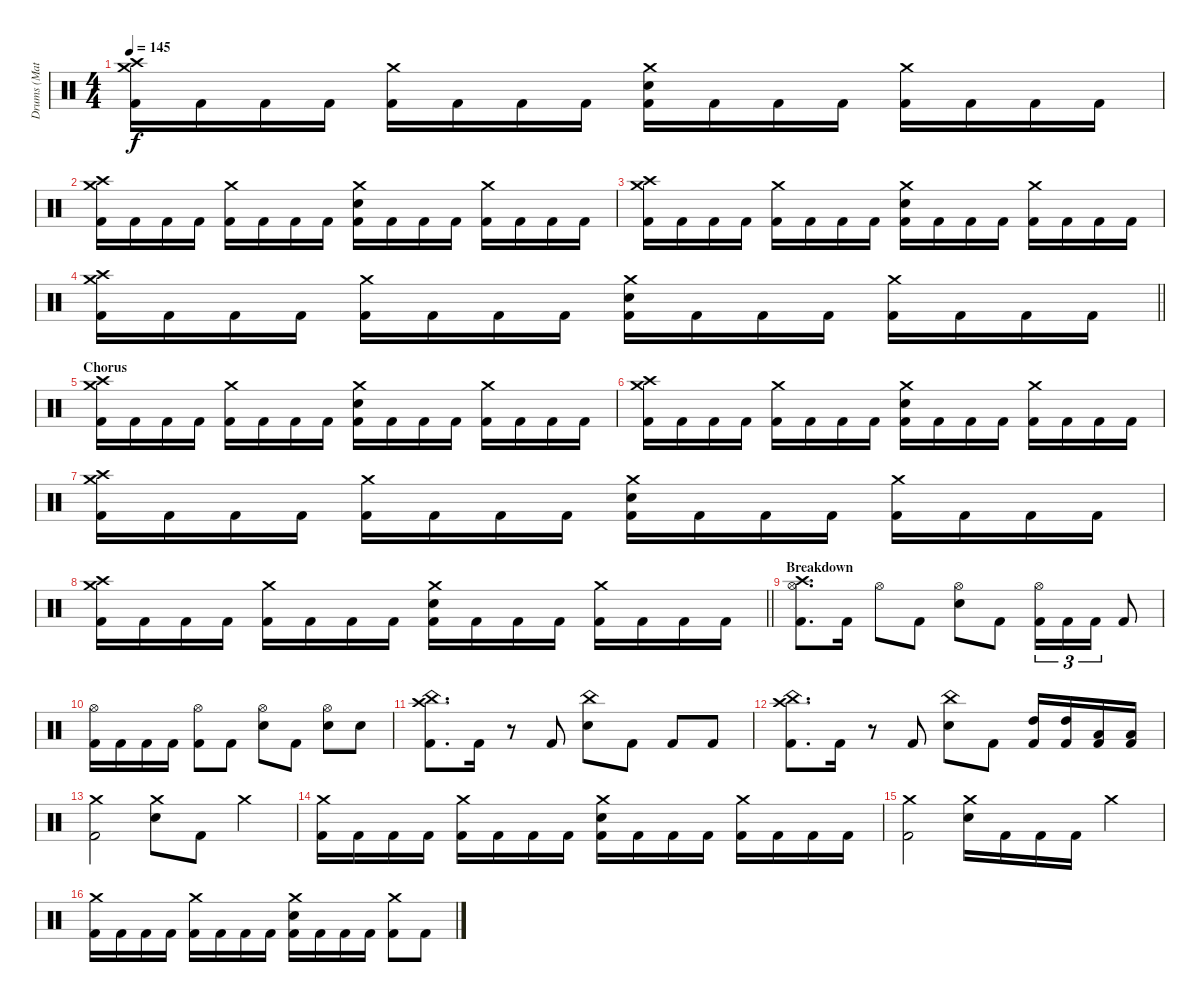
\track ("Drums (Matt Kuykendall)" "Drums (Mat") {instrument percussion}
\staff {score}
\articulation defaults
\ts (4 4)
\tempo 145
\clef neutral
\ks c
("Crash medium (hit)" "Crash high (hit)" "Kick (hit) 2").16{dy f} "Kick (hit) 2".16 "Kick (hit) 2".16 "Kick (hit) 2".16 ("Crash medium (hit)" "Kick (hit) 2").16 "Kick (hit) 2".16 "Kick (hit) 2".16 "Kick (hit) 2".16 ("Crash medium (hit)" "Electric Snare (hit)" "Kick (hit) 2").16 "Kick (hit) 2".16 "Kick (hit) 2".16 "Kick (hit) 2".16 ("Crash medium (hit)" "Kick (hit) 2").16 "Kick (hit) 2".16 "Kick (hit) 2".16 "Kick (hit) 2".16 |
("Crash medium (hit)" "Crash high (hit)" "Kick (hit) 2").16 "Kick (hit) 2".16 "Kick (hit) 2".16 "Kick (hit) 2".16 ("Crash medium (hit)" "Kick (hit) 2").16 "Kick (hit) 2".16 "Kick (hit) 2".16 "Kick (hit) 2".16 ("Crash medium (hit)" "Electric Snare (hit)" "Kick (hit) 2").16 "Kick (hit) 2".16 "Kick (hit) 2".16 "Kick (hit) 2".16 ("Crash medium (hit)" "Kick (hit) 2").16 "Kick (hit) 2".16 "Kick (hit) 2".16 "Kick (hit) 2".16 |
("Crash medium (hit)" "Crash high (hit)" "Kick (hit) 2").16 "Kick (hit) 2".16 "Kick (hit) 2".16 "Kick (hit) 2".16 ("Crash medium (hit)" "Kick (hit) 2").16 "Kick (hit) 2".16 "Kick (hit) 2".16 "Kick (hit) 2".16 ("Crash medium (hit)" "Electric Snare (hit)" "Kick (hit) 2").16 "Kick (hit) 2".16 "Kick (hit) 2".16 "Kick (hit) 2".16 ("Crash medium (hit)" "Kick (hit) 2").16 "Kick (hit) 2".16 "Kick (hit) 2".16 "Kick (hit) 2".16 |
\barLineRight lightlight
("Crash medium (hit)" "Crash high (hit)" "Kick (hit) 2").16 "Kick (hit) 2".16 "Kick (hit) 2".16 "Kick (hit) 2".16 ("Crash medium (hit)" "Kick (hit) 2").16 "Kick (hit) 2".16 "Kick (hit) 2".16 "Kick (hit) 2".16 ("Crash medium (hit)" "Electric Snare (hit)" "Kick (hit) 2").16 "Kick (hit) 2".16 "Kick (hit) 2".16 "Kick (hit) 2".16 ("Crash medium (hit)" "Kick (hit) 2").16 "Kick (hit) 2".16 "Kick (hit) 2".16 "Kick (hit) 2".16 |
\section ("" "Chorus")
("Crash medium (hit)" "Crash high (hit)" "Kick (hit) 2").16 "Kick (hit) 2".16 "Kick (hit) 2".16 "Kick (hit) 2".16 ("Crash medium (hit)" "Kick (hit) 2").16 "Kick (hit) 2".16 "Kick (hit) 2".16 "Kick (hit) 2".16 ("Crash medium (hit)" "Electric Snare (hit)" "Kick (hit) 2").16 "Kick (hit) 2".16 "Kick (hit) 2".16 "Kick (hit) 2".16 ("Crash medium (hit)" "Kick (hit) 2").16 "Kick (hit) 2".16 "Kick (hit) 2".16 "Kick (hit) 2".16 |
("Crash medium (hit)" "Crash high (hit)" "Kick (hit) 2").16 "Kick (hit) 2".16 "Kick (hit) 2".16 "Kick (hit) 2".16 ("Crash medium (hit)" "Kick (hit) 2").16 "Kick (hit) 2".16 "Kick (hit) 2".16 "Kick (hit) 2".16 ("Crash medium (hit)" "Electric Snare (hit)" "Kick (hit) 2").16 "Kick (hit) 2".16 "Kick (hit) 2".16 "Kick (hit) 2".16 ("Crash medium (hit)" "Kick (hit) 2").16 "Kick (hit) 2".16 "Kick (hit) 2".16 "Kick (hit) 2".16 |
("Crash medium (hit)" "Crash high (hit)" "Kick (hit) 2").16 "Kick (hit) 2".16 "Kick (hit) 2".16 "Kick (hit) 2".16 ("Crash medium (hit)" "Kick (hit) 2").16 "Kick (hit) 2".16 "Kick (hit) 2".16 "Kick (hit) 2".16 ("Crash medium (hit)" "Electric Snare (hit)" "Kick (hit) 2").16 "Kick (hit) 2".16 "Kick (hit) 2".16 "Kick (hit) 2".16 ("Crash medium (hit)" "Kick (hit) 2").16 "Kick (hit) 2".16 "Kick (hit) 2".16 "Kick (hit) 2".16 |
\barLineRight lightlight
("Crash medium (hit)" "Crash high (hit)" "Kick (hit) 2").16 "Kick (hit) 2".16 "Kick (hit) 2".16 "Kick (hit) 2".16 ("Crash medium (hit)" "Kick (hit) 2").16 "Kick (hit) 2".16 "Kick (hit) 2".16 "Kick (hit) 2".16 ("Crash medium (hit)" "Electric Snare (hit)" "Kick (hit) 2").16 "Kick (hit) 2".16 "Kick (hit) 2".16 "Kick (hit) 2".16 ("Crash medium (hit)" "Kick (hit) 2").16 "Kick (hit) 2".16 "Kick (hit) 2".16 "Kick (hit) 2".16 |
\section ("" "Breakdown")
("Hi-Hat (open)" "Crash high (hit)" "Kick (hit) 2").8{d} "Kick (hit) 2".16 "Hi-Hat (open)".8 "Kick (hit) 2".8 ("Hi-Hat (open)" "Electric Snare (hit)").8 "Kick (hit) 2".8 ("Hi-Hat (open)" "Kick (hit) 2").16{tu (3 2)} "Kick (hit) 2".16{tu (3 2)} "Kick (hit) 2".16{tu (3 2)} "Kick (hit) 2".8 |
("Hi-Hat (open)" "Kick (hit) 2").16 "Kick (hit) 2".16 "Kick (hit) 2".16 "Kick (hit) 2".16 ("Hi-Hat (open)" "Kick (hit) 2").8 "Kick (hit) 2".8 ("Hi-Hat (open)" "Electric Snare (hit)").8 "Kick (hit) 2".8 ("Hi-Hat (open)" "Electric Snare (hit)").8 "Electric Snare (hit)".8 |
("China (hit)" "Crash high (hit)" "Kick (hit) 2").8{d} "Kick (hit) 2".16 r.8 "Kick (hit) 2".8 ("China (hit)" "Electric Snare (hit)").8 "Kick (hit) 2".8 "Kick (hit) 2".8 "Kick (hit) 2".8 |
("China (hit)" "Crash high (hit)" "Kick (hit) 2").8{d} "Kick (hit) 2".16 r.8 "Kick (hit) 2".8 ("China (hit)" "Electric Snare (hit)").8 "Kick (hit) 2".8 ("High Tom (hit)" "Kick (hit) 2").16 ("High Tom (hit)" "Kick (hit) 2").16 ("Low Tom (hit)" "Kick (hit) 2").16 ("Low Tom (hit)" "Kick (hit) 2").16 |
("Crash medium (hit)" "Kick (hit) 2").2 ("Crash medium (hit)" "Electric Snare (hit)").8 "Kick (hit) 2".8 "Crash medium (hit)".4 |
("Crash medium (hit)" "Kick (hit) 2").16 "Kick (hit) 2".16 "Kick (hit) 2".16 "Kick (hit) 2".16 ("Crash medium (hit)" "Kick (hit) 2").16 "Kick (hit) 2".16 "Kick (hit) 2".16 "Kick (hit) 2".16 ("Crash medium (hit)" "Electric Snare (hit)" "Kick (hit) 2").16 "Kick (hit) 2".16 "Kick (hit) 2".16 "Kick (hit) 2".16 ("Crash medium (hit)" "Kick (hit) 2").16 "Kick (hit) 2".16 "Kick (hit) 2".16 "Kick (hit) 2".16 |
("Crash medium (hit)" "Kick (hit) 2").2 ("Crash medium (hit)" "Electric Snare (hit)").16 "Kick (hit) 2".16 "Kick (hit) 2".16 "Kick (hit) 2".16 "Crash medium (hit)".4 |
("Crash medium (hit)" "Kick (hit) 2").16 "Kick (hit) 2".16 "Kick (hit) 2".16 "Kick (hit) 2".16 ("Crash medium (hit)" "Kick (hit) 2").16 "Kick (hit) 2".16 "Kick (hit) 2".16 "Kick (hit) 2".16 ("Crash medium (hit)" "Electric Snare (hit)" "Kick (hit) 2").16 "Kick (hit) 2".16 "Kick (hit) 2".16 "Kick (hit) 2".16 ("Crash medium (hit)" "Kick (hit) 2").8 "Kick (hit) 2".8
